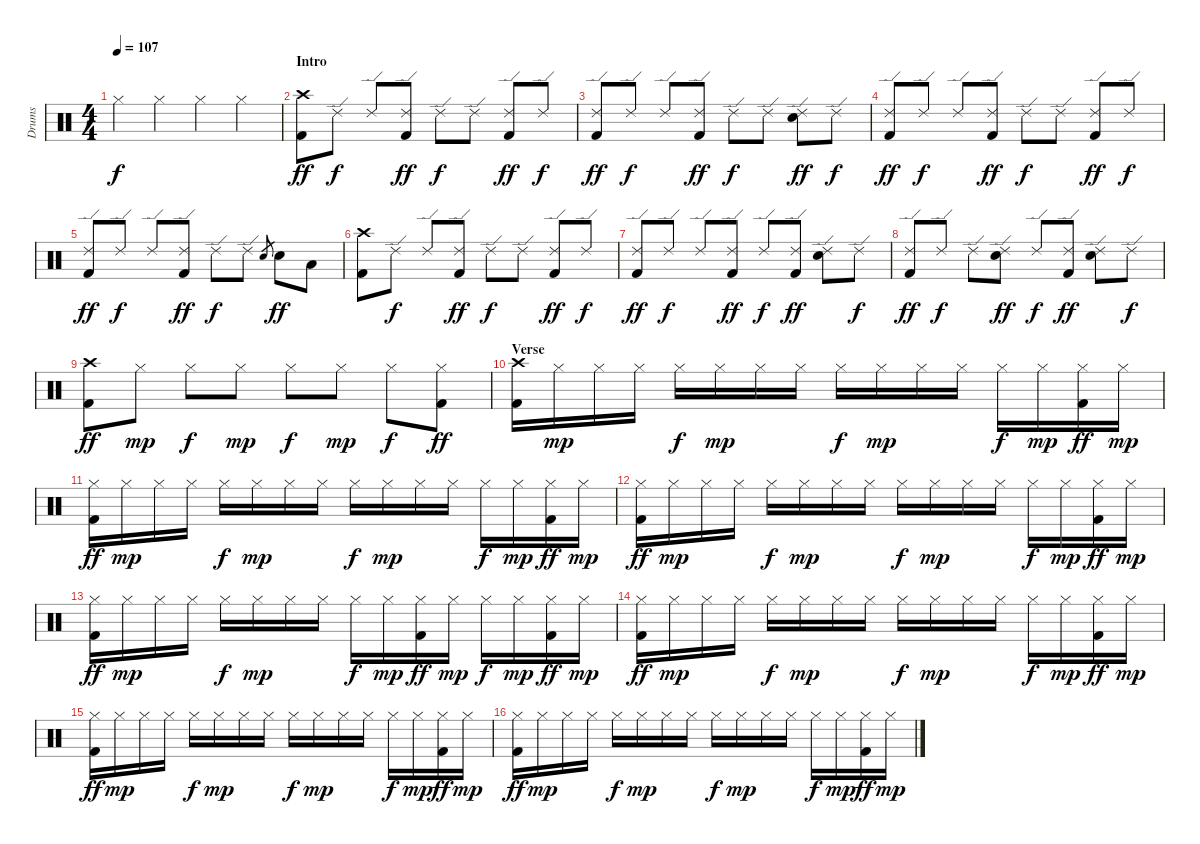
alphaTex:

\track ("Drums" "Drums") {instrument percussion}
\staff {score}
\articulation defaults
\ts (4 4)
\tempo 107
\clef neutral
\ks c "Hi-Hat (closed)".4{dy f} "Hi-Hat (closed)".4 "Hi-Hat (closed)".4 "Hi-Hat (closed)".4
|
\section ("" "Intro")
("Crash high (hit)" "Kick (hit) 2").8{dy ff} "Ride (edge) 2".8{dy f} "Ride (edge) 2".8 ("Ride (edge) 2" "Kick (hit) 2").8{dy ff} "Ride (edge) 2".8{dy f} "Ride (edge) 2".8 ("Ride (edge) 2" "Kick (hit) 2").8{dy ff} "Ride (edge) 2".8{dy f} |
("Ride (edge) 2" "Kick (hit) 2").8{dy ff} "Ride (edge) 2".8{dy f} "Ride (edge) 2".8 ("Ride (edge) 2" "Kick (hit) 2").8{dy ff} "Ride (edge) 2".8{dy f} "Ride (edge) 2".8 ("Ride (edge) 2" "Snare (hit) 2").8{dy ff} "Ride (edge) 2".8{dy f} |
("Ride (edge) 2" "Kick (hit) 2").8{dy ff} "Ride (edge) 2".8{dy f} "Ride (edge) 2".8 ("Ride (edge) 2" "Kick (hit) 2").8{dy ff} "Ride (edge) 2".8{dy f} "Ride (edge) 2".8 ("Ride (edge) 2" "Kick (hit) 2").8{dy ff} "Ride (edge) 2".8{dy f} |
("Ride (edge) 2" "Kick (hit) 2").8{dy ff} "Ride (edge) 2".8{dy f} "Ride (edge) 2".8 ("Ride (edge) 2" "Kick (hit) 2").8{dy ff} "Ride (edge) 2".8{dy f} "Ride (edge) 2".8 "Snare (hit) 2".8{gr} "Snare (hit) 2".8{dy ff} "Low Tom (hit)".8 |
("Crash high (hit)" "Kick (hit) 2").8 "Ride (edge) 2".8{dy f} "Ride (edge) 2".8 ("Ride (edge) 2" "Kick (hit) 2").8{dy ff} "Ride (edge) 2".8{dy f} "Ride (edge) 2".8 ("Ride (edge) 2" "Kick (hit) 2").8{dy ff} "Ride (edge) 2".8{dy f} |
("Ride (edge) 2" "Kick (hit) 2").8{dy ff} "Ride (edge) 2".8{dy f} "Ride (edge) 2".8 ("Ride (edge) 2" "Kick (hit) 2").8{dy ff} "Ride (edge) 2".8{dy f} ("Ride (edge) 2" "Kick (hit) 2").8{dy ff} ("Ride (edge) 2" "Snare (hit) 2").8 "Ride (edge) 2".8{dy f} |
("Ride (edge) 2" "Kick (hit) 2").8{dy ff} "Ride (edge) 2".8{dy f} "Ride (edge) 2".8 ("Ride (edge) 2" "Snare (hit) 2").8{dy ff} "Ride (edge) 2".8{dy f} ("Ride (edge) 2" "Kick (hit) 2").8{dy ff} ("Ride (edge) 2" "Snare (hit) 2").8 "Ride (edge) 2".8{dy f} |
("Crash high (hit)" "Kick (hit) 2").8{dy ff} "Hi-Hat (closed)".8{dy mp} "Hi-Hat (closed)".8{dy f} "Hi-Hat (closed)".8{dy mp} "Hi-Hat (closed)".8{dy f} "Hi-Hat (closed)".8{dy mp} "Hi-Hat (closed)".8{dy f} ("Hi-Hat (closed)" "Kick (hit) 2").8{dy ff} |
\section ("" "Verse")
("Crash high (hit)" "Kick (hit) 2").16 "Hi-Hat (closed)".16{dy mp} "Hi-Hat (closed)".16 "Hi-Hat (closed)".16 "Hi-Hat (closed)".16{dy f} "Hi-Hat (closed)".16{dy mp} "Hi-Hat (closed)".16 "Hi-Hat (closed)".16 "Hi-Hat (closed)".16{dy f} "Hi-Hat (closed)".16{dy mp} "Hi-Hat (closed)".16 "Hi-Hat (closed)".16 "Hi-Hat (closed)".16{dy f} "Hi-Hat (closed)".16{dy mp} ("Hi-Hat (closed)" "Kick (hit) 2").16{dy ff} "Hi-Hat (closed)".16{dy mp} |
("Hi-Hat (closed)" "Kick (hit) 2").16{dy ff} "Hi-Hat (closed)".16{dy mp} "Hi-Hat (closed)".16 "Hi-Hat (closed)".16 "Hi-Hat (closed)".16{dy f} "Hi-Hat (closed)".16{dy mp} "Hi-Hat (closed)".16 "Hi-Hat (closed)".16 "Hi-Hat (closed)".16{dy f} "Hi-Hat (closed)".16{dy mp} "Hi-Hat (closed)".16 "Hi-Hat (closed)".16 "Hi-Hat (closed)".16{dy f} "Hi-Hat (closed)".16{dy mp} ("Hi-Hat (closed)" "Kick (hit) 2").16{dy ff} "Hi-Hat (closed)".16{dy mp} |
("Hi-Hat (closed)" "Kick (hit) 2").16{dy ff} "Hi-Hat (closed)".16{dy mp} "Hi-Hat (closed)".16 "Hi-Hat (closed)".16 "Hi-Hat (closed)".16{dy f} "Hi-Hat (closed)".16{dy mp} "Hi-Hat (closed)".16 "Hi-Hat (closed)".16 "Hi-Hat (closed)".16{dy f} "Hi-Hat (closed)".16{dy mp} "Hi-Hat (closed)".16 "Hi-Hat (closed)".16 "Hi-Hat (closed)".16{dy f} "Hi-Hat (closed)".16{dy mp} ("Hi-Hat (closed)" "Kick (hit) 2").16{dy ff} "Hi-Hat (closed)".16{dy mp} |
("Hi-Hat (closed)" "Kick (hit) 2").16{dy ff} "Hi-Hat (closed)".16{dy mp} "Hi-Hat (closed)".16 "Hi-Hat (closed)".16 "Hi-Hat (closed)".16{dy f} "Hi-Hat (closed)".16{dy mp} "Hi-Hat (closed)".16 "Hi-Hat (closed)".16 "Hi-Hat (closed)".16{dy f} "Hi-Hat (closed)".16{dy mp} ("Hi-Hat (closed)" "Kick (hit) 2").16{dy ff} "Hi-Hat (closed)".16{dy mp} "Hi-Hat (closed)".16{dy f} "Hi-Hat (closed)".16{dy mp} ("Hi-Hat (closed)" "Kick (hit) 2").16{dy ff} "Hi-Hat (closed)".16{dy mp} |
("Hi-Hat (closed)" "Kick (hit) 2").16{dy ff} "Hi-Hat (closed)".16{dy mp} "Hi-Hat (closed)".16 "Hi-Hat (closed)".16 "Hi-Hat (closed)".16{dy f} "Hi-Hat (closed)".16{dy mp} "Hi-Hat (closed)".16 "Hi-Hat (closed)".16 "Hi-Hat (closed)".16{dy f} "Hi-Hat (closed)".16{dy mp} "Hi-Hat (closed)".16 "Hi-Hat (closed)".16 "Hi-Hat (closed)".16{dy f} "Hi-Hat (closed)".16{dy mp} ("Hi-Hat (closed)" "Kick (hit) 2").16{dy ff} "Hi-Hat (closed)".16{dy mp} |
("Hi-Hat (closed)" "Kick (hit) 2").16{dy ff} "Hi-Hat (closed)".16{dy mp} "Hi-Hat (closed)".16 "Hi-Hat (closed)".16 "Hi-Hat (closed)".16{dy f} "Hi-Hat (closed)".16{dy mp} "Hi-Hat (closed)".16 "Hi-Hat (closed)".16 "Hi-Hat (closed)".16{dy f} "Hi-Hat (closed)".16{dy mp} "Hi-Hat (closed)".16 "Hi-Hat (closed)".16 "Hi-Hat (closed)".16{dy f} "Hi-Hat (closed)".16{dy mp} ("Hi-Hat (closed)" "Kick (hit) 2").16{dy ff} "Hi-Hat (closed)".16{dy mp} |
("Hi-Hat (closed)" "Kick (hit) 2").16{dy ff} "Hi-Hat (closed)".16{dy mp} "Hi-Hat (closed)".16 "Hi-Hat (closed)".16 "Hi-Hat (closed)".16{dy f} "Hi-Hat (closed)".16{dy mp} "Hi-Hat (closed)".16 "Hi-Hat (closed)".16 "Hi-Hat (closed)".16{dy f} "Hi-Hat (closed)".16{dy mp} "Hi-Hat (closed)".16 "Hi-Hat (closed)".16 "Hi-Hat (closed)".16{dy f} "Hi-Hat (closed)".16{dy mp} ("Hi-Hat (closed)" "Kick (hit) 2").16{dy ff} "Hi-Hat (closed)".16{dy mp}
